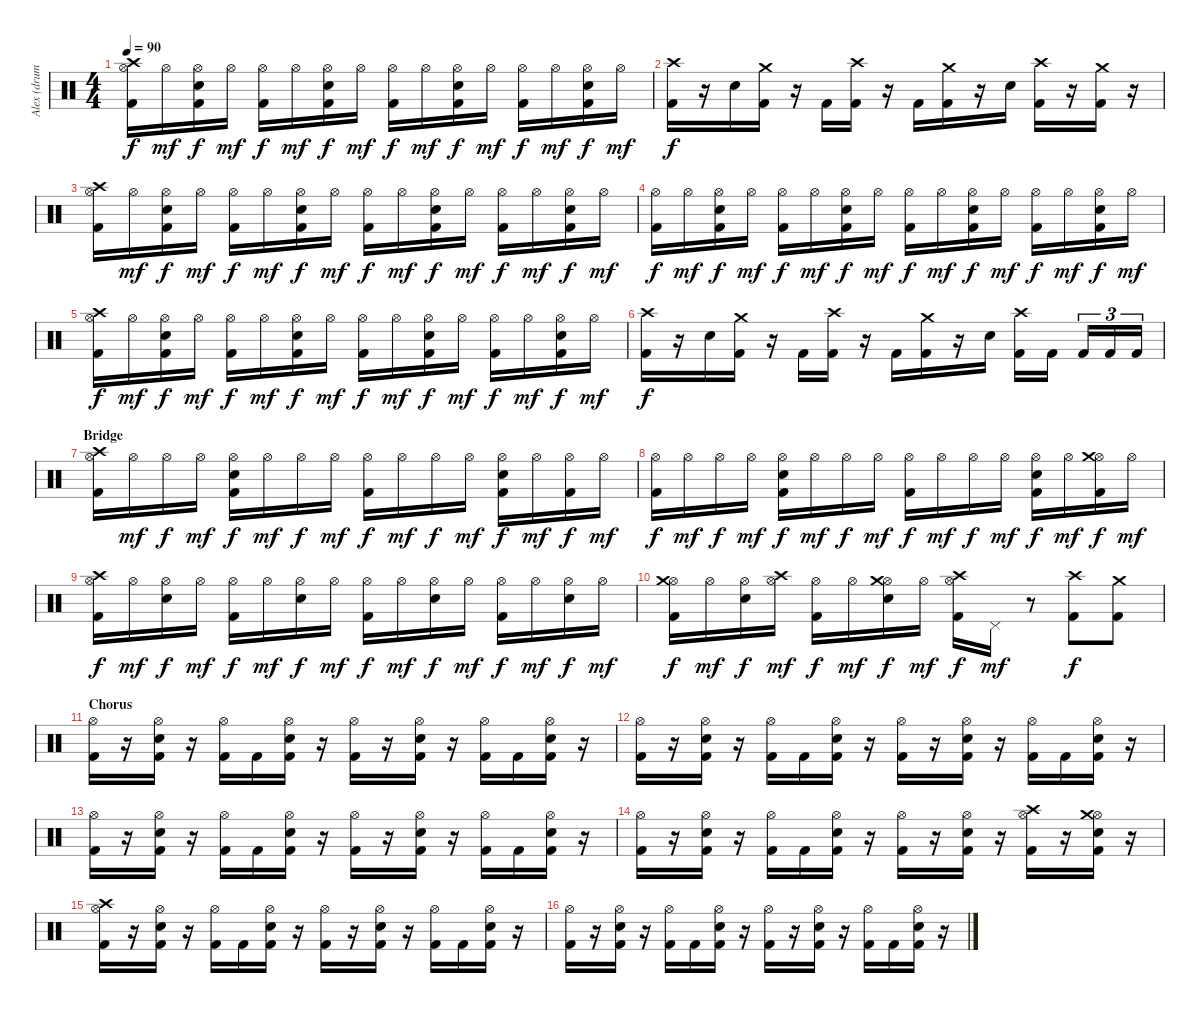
\track ("Alex (drums)" "Alex (drum") {instrument percussion}
\staff {score}
\articulation defaults
\ts (4 4)
\tempo 90
\clef neutral
\ks c
("Hi-Hat (open)" "Kick (hit) 2" "Crash high (hit)").16{dy f} "Hi-Hat (open)".16{dy mf} ("Hi-Hat (open)" "Snare (hit) 2" "Kick (hit) 2").16{dy f} "Hi-Hat (open)".16{dy mf} ("Hi-Hat (open)" "Kick (hit) 2").16{dy f} "Hi-Hat (open)".16{dy mf} ("Hi-Hat (open)" "Snare (hit) 2" "Kick (hit) 2").16{dy f} "Hi-Hat (open)".16{dy mf} ("Hi-Hat (open)" "Kick (hit) 2").16{dy f} "Hi-Hat (open)".16{dy mf} ("Hi-Hat (open)" "Snare (hit) 2" "Kick (hit) 2").16{dy f} "Hi-Hat (open)".16{dy mf} ("Hi-Hat (open)" "Kick (hit) 2").16{dy f} "Hi-Hat (open)".16{dy mf} ("Hi-Hat (open)" "Snare (hit) 2" "Kick (hit) 2").16{dy f} "Hi-Hat (open)".16{dy mf} |
("Kick (hit) 2" "Crash high (hit)").16{dy f} r.16 "Snare (hit) 2".16 ("Kick (hit) 2" "Crash medium (hit)").16 r.16 "Kick (hit) 2".16 ("Kick (hit) 2" "Crash high (hit)").16 r.16 "Kick (hit) 2".16 ("Kick (hit) 2" "Crash medium (hit)").16 r.16 "Snare (hit) 2".16 ("Kick (hit) 2" "Crash high (hit)").16 r.16 ("Kick (hit) 2" "Crash medium (hit)").16 r.16 |
("Hi-Hat (open)" "Kick (hit) 2" "Crash high (hit)").16 "Hi-Hat (open)".16{dy mf} ("Hi-Hat (open)" "Snare (hit) 2" "Kick (hit) 2").16{dy f} "Hi-Hat (open)".16{dy mf} ("Hi-Hat (open)" "Kick (hit) 2").16{dy f} "Hi-Hat (open)".16{dy mf} ("Hi-Hat (open)" "Snare (hit) 2" "Kick (hit) 2").16{dy f} "Hi-Hat (open)".16{dy mf} ("Hi-Hat (open)" "Kick (hit) 2").16{dy f} "Hi-Hat (open)".16{dy mf} ("Hi-Hat (open)" "Snare (hit) 2" "Kick (hit) 2").16{dy f} "Hi-Hat (open)".16{dy mf} ("Hi-Hat (open)" "Kick (hit) 2").16{dy f} "Hi-Hat (open)".16{dy mf} ("Hi-Hat (open)" "Snare (hit) 2" "Kick (hit) 2").16{dy f} "Hi-Hat (open)".16{dy mf} |
("Hi-Hat (open)" "Kick (hit) 2").16{dy f} "Hi-Hat (open)".16{dy mf} ("Hi-Hat (open)" "Snare (hit) 2" "Kick (hit) 2").16{dy f} "Hi-Hat (open)".16{dy mf} ("Hi-Hat (open)" "Kick (hit) 2").16{dy f} "Hi-Hat (open)".16{dy mf} ("Hi-Hat (open)" "Snare (hit) 2" "Kick (hit) 2").16{dy f} "Hi-Hat (open)".16{dy mf} ("Hi-Hat (open)" "Kick (hit) 2").16{dy f} "Hi-Hat (open)".16{dy mf} ("Hi-Hat (open)" "Snare (hit) 2" "Kick (hit) 2").16{dy f} "Hi-Hat (open)".16{dy mf} ("Hi-Hat (open)" "Kick (hit) 2").16{dy f} "Hi-Hat (open)".16{dy mf} ("Hi-Hat (open)" "Snare (hit) 2" "Kick (hit) 2").16{dy f} "Hi-Hat (open)".16{dy mf} |
("Hi-Hat (open)" "Kick (hit) 2" "Crash high (hit)").16{dy f} "Hi-Hat (open)".16{dy mf} ("Hi-Hat (open)" "Snare (hit) 2" "Kick (hit) 2").16{dy f} "Hi-Hat (open)".16{dy mf} ("Hi-Hat (open)" "Kick (hit) 2").16{dy f} "Hi-Hat (open)".16{dy mf} ("Hi-Hat (open)" "Snare (hit) 2" "Kick (hit) 2").16{dy f} "Hi-Hat (open)".16{dy mf} ("Hi-Hat (open)" "Kick (hit) 2").16{dy f} "Hi-Hat (open)".16{dy mf} ("Hi-Hat (open)" "Snare (hit) 2" "Kick (hit) 2").16{dy f} "Hi-Hat (open)".16{dy mf} ("Hi-Hat (open)" "Kick (hit) 2").16{dy f} "Hi-Hat (open)".16{dy mf} ("Hi-Hat (open)" "Snare (hit) 2" "Kick (hit) 2").16{dy f} "Hi-Hat (open)".16{dy mf} |
("Kick (hit) 2" "Crash high (hit)").16{dy f} r.16 "Snare (hit) 2".16 ("Kick (hit) 2" "Crash medium (hit)").16 r.16 "Kick (hit) 2".16 ("Kick (hit) 2" "Crash high (hit)").16 r.16 "Kick (hit) 2".16 ("Kick (hit) 2" "Crash medium (hit)").16 r.16 "Snare (hit) 2".16 ("Kick (hit) 2" "Crash high (hit)").16 "Kick (hit) 2".16 "Kick (hit) 2".16{tu (3 2)} "Kick (hit) 2".16{tu (3 2)} "Kick (hit) 2".16{tu (3 2)} |
\section ("" "Bridge")
("Hi-Hat (open)" "Kick (hit) 2" "Crash high (hit)").16 "Hi-Hat (open)".16{dy mf} "Hi-Hat (open)".16{dy f} "Hi-Hat (open)".16{dy mf} ("Hi-Hat (open)" "Snare (hit) 2" "Kick (hit) 2").16{dy f} "Hi-Hat (open)".16{dy mf} "Hi-Hat (open)".16{dy f} "Hi-Hat (open)".16{dy mf} ("Hi-Hat (open)" "Kick (hit) 2").16{dy f} "Hi-Hat (open)".16{dy mf} "Hi-Hat (open)".16{dy f} "Hi-Hat (open)".16{dy mf} ("Hi-Hat (open)" "Snare (hit) 2" "Kick (hit) 2").16{dy f} "Hi-Hat (open)".16{dy mf} ("Hi-Hat (open)" "Kick (hit) 2").16{dy f} "Hi-Hat (open)".16{dy mf} |
("Hi-Hat (open)" "Kick (hit) 2").16{dy f} "Hi-Hat (open)".16{dy mf} "Hi-Hat (open)".16{dy f} "Hi-Hat (open)".16{dy mf} ("Hi-Hat (open)" "Snare (hit) 2" "Kick (hit) 2").16{dy f} "Hi-Hat (open)".16{dy mf} "Hi-Hat (open)".16{dy f} "Hi-Hat (open)".16{dy mf} ("Hi-Hat (open)" "Kick (hit) 2").16{dy f} "Hi-Hat (open)".16{dy mf} "Hi-Hat (open)".16{dy f} "Hi-Hat (open)".16{dy mf} ("Hi-Hat (open)" "Snare (hit) 2" "Kick (hit) 2").16{dy f} "Hi-Hat (open)".16{dy mf} ("Hi-Hat (open)" "Kick (hit) 2" "Crash medium (hit)").16{dy f} "Hi-Hat (open)".16{dy mf} |
("Hi-Hat (open)" "Kick (hit) 2" "Crash high (hit)").16{dy f} "Hi-Hat (open)".16{dy mf} ("Hi-Hat (open)" "Snare (hit) 2").16{dy f} "Hi-Hat (open)".16{dy mf} ("Hi-Hat (open)" "Kick (hit) 2").16{dy f} "Hi-Hat (open)".16{dy mf} ("Hi-Hat (open)" "Snare (hit) 2").16{dy f} "Hi-Hat (open)".16{dy mf} ("Hi-Hat (open)" "Kick (hit) 2").16{dy f} "Hi-Hat (open)".16{dy mf} ("Hi-Hat (open)" "Snare (hit) 2").16{dy f} "Hi-Hat (open)".16{dy mf} ("Hi-Hat (open)" "Kick (hit) 2").16{dy f} "Hi-Hat (open)".16{dy mf} ("Hi-Hat (open)" "Snare (hit) 2").16{dy f} "Hi-Hat (open)".16{dy mf} |
("Hi-Hat (open)" "Kick (hit) 2" "Crash medium (hit)").16{dy f} "Hi-Hat (open)".16{dy mf} ("Hi-Hat (open)" "Snare (hit) 2").16{dy f} ("Hi-Hat (open)" "Crash high (hit)").16{dy mf} ("Hi-Hat (open)" "Kick (hit) 2").16{dy f} "Hi-Hat (open)".16{dy mf} ("Hi-Hat (open)" "Snare (hit) 2" "Crash medium (hit)").16{dy f} "Hi-Hat (open)".16{dy mf} ("Hi-Hat (open)" "Kick (hit) 2" "Crash high (hit)").16{dy f} "Pedal Hi-Hat (hit)".16{dy mf} r.8 ("Kick (hit) 2" "Crash high (hit)").8{dy f} ("Kick (hit) 2" "Crash medium (hit)").8 |
\section ("" "Chorus")
("Hi-Hat (open)" "Kick (hit) 2").16 r.16 ("Hi-Hat (open)" "Snare (hit) 2" "Kick (hit) 2").16 r.16 ("Hi-Hat (open)" "Kick (hit) 2").16 "Kick (hit) 2".16 ("Hi-Hat (open)" "Snare (hit) 2" "Kick (hit) 2").16 r.16 ("Hi-Hat (open)" "Kick (hit) 2").16 r.16 ("Hi-Hat (open)" "Snare (hit) 2" "Kick (hit) 2").16 r.16 ("Hi-Hat (open)" "Kick (hit) 2").16 "Kick (hit) 2".16 ("Hi-Hat (open)" "Snare (hit) 2" "Kick (hit) 2").16 r.16 |
("Hi-Hat (open)" "Kick (hit) 2").16 r.16 ("Hi-Hat (open)" "Snare (hit) 2" "Kick (hit) 2").16 r.16 ("Hi-Hat (open)" "Kick (hit) 2").16 "Kick (hit) 2".16 ("Hi-Hat (open)" "Snare (hit) 2" "Kick (hit) 2").16 r.16 ("Hi-Hat (open)" "Kick (hit) 2").16 r.16 ("Hi-Hat (open)" "Snare (hit) 2" "Kick (hit) 2").16 r.16 ("Hi-Hat (open)" "Kick (hit) 2").16 "Kick (hit) 2".16 ("Hi-Hat (open)" "Snare (hit) 2" "Kick (hit) 2").16 r.16 |
("Hi-Hat (open)" "Kick (hit) 2").16 r.16 ("Hi-Hat (open)" "Snare (hit) 2" "Kick (hit) 2").16 r.16 ("Hi-Hat (open)" "Kick (hit) 2").16 "Kick (hit) 2".16 ("Hi-Hat (open)" "Snare (hit) 2" "Kick (hit) 2").16 r.16 ("Hi-Hat (open)" "Kick (hit) 2").16 r.16 ("Hi-Hat (open)" "Snare (hit) 2" "Kick (hit) 2").16 r.16 ("Hi-Hat (open)" "Kick (hit) 2").16 "Kick (hit) 2".16 ("Hi-Hat (open)" "Snare (hit) 2" "Kick (hit) 2").16 r.16 |
("Hi-Hat (open)" "Kick (hit) 2").16 r.16 ("Hi-Hat (open)" "Snare (hit) 2" "Kick (hit) 2").16 r.16 ("Hi-Hat (open)" "Kick (hit) 2").16 "Kick (hit) 2".16 ("Hi-Hat (open)" "Snare (hit) 2" "Kick (hit) 2").16 r.16 ("Hi-Hat (open)" "Kick (hit) 2").16 r.16 ("Hi-Hat (open)" "Snare (hit) 2" "Kick (hit) 2").16 r.16 ("Hi-Hat (open)" "Kick (hit) 2" "Crash high (hit)").16 r.16 ("Hi-Hat (open)" "Snare (hit) 2" "Kick (hit) 2" "Crash medium (hit)").16 r.16 |
("Hi-Hat (open)" "Kick (hit) 2" "Crash high (hit)").16 r.16 ("Hi-Hat (open)" "Snare (hit) 2" "Kick (hit) 2").16 r.16 ("Hi-Hat (open)" "Kick (hit) 2").16 "Kick (hit) 2".16 ("Hi-Hat (open)" "Snare (hit) 2" "Kick (hit) 2").16 r.16 ("Hi-Hat (open)" "Kick (hit) 2").16 r.16 ("Hi-Hat (open)" "Snare (hit) 2" "Kick (hit) 2").16 r.16 ("Hi-Hat (open)" "Kick (hit) 2").16 "Kick (hit) 2".16 ("Hi-Hat (open)" "Snare (hit) 2" "Kick (hit) 2").16 r.16 |
("Hi-Hat (open)" "Kick (hit) 2").16 r.16 ("Hi-Hat (open)" "Snare (hit) 2" "Kick (hit) 2").16 r.16 ("Hi-Hat (open)" "Kick (hit) 2").16 "Kick (hit) 2".16 ("Hi-Hat (open)" "Snare (hit) 2" "Kick (hit) 2").16 r.16 ("Hi-Hat (open)" "Kick (hit) 2").16 r.16 ("Hi-Hat (open)" "Snare (hit) 2" "Kick (hit) 2").16 r.16 ("Hi-Hat (open)" "Kick (hit) 2").16 "Kick (hit) 2".16 ("Hi-Hat (open)" "Snare (hit) 2" "Kick (hit) 2").16 r.16
